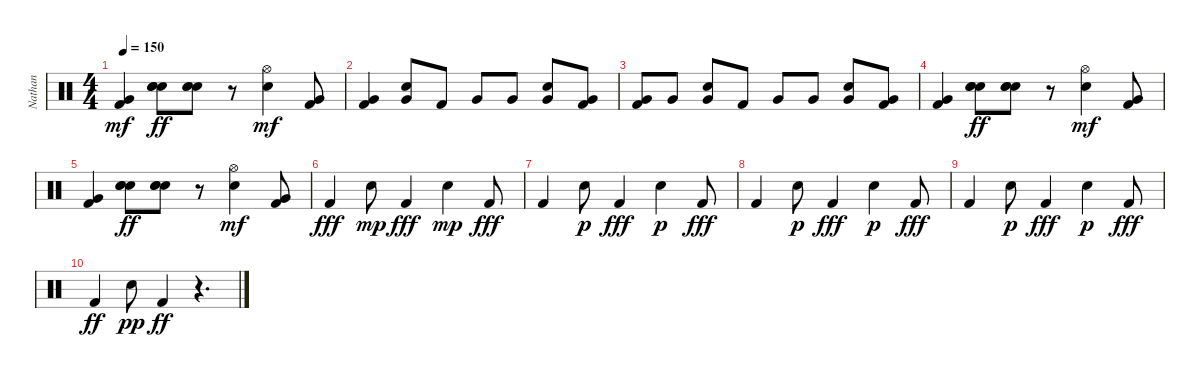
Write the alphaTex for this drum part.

\track ("Nathan" "Nathan") {instrument percussion}
\staff {score}
\articulation defaults
\ts (4 4)
\tempo 150
\clef neutral
\ks c
("Very Low Tom (hit)" "Kick (hit) 2").4{dy mf} ("Electric Snare (hit)" "Hand Clap (hit)" "Hand Clap (hit)").8{dy ff} ("Electric Snare (hit)" "Hand Clap (hit)" "Hand Clap (hit)").8 r.8 ("Electric Snare (hit)" "Hi-Hat (open)").4{dy mf} ("Very Low Tom (hit)" "Kick (hit) 2").8 |
("Very Low Tom (hit)" "Kick (hit) 2").4 ("Very Low Tom (hit)" "Electric Snare (hit)").8 "Kick (hit) 2".8 "Very Low Tom (hit)".8 "Very Low Tom (hit)".8 ("Very Low Tom (hit)" "Electric Snare (hit)").8 ("Very Low Tom (hit)" "Kick (hit) 2").8 |
("Very Low Tom (hit)" "Kick (hit) 2").8 "Very Low Tom (hit)".8 ("Very Low Tom (hit)" "Electric Snare (hit)").8 "Kick (hit) 2".8 "Very Low Tom (hit)".8 "Very Low Tom (hit)".8 ("Very Low Tom (hit)" "Electric Snare (hit)").8 ("Very Low Tom (hit)" "Kick (hit) 2").8 |
("Very Low Tom (hit)" "Kick (hit) 2").4 ("Electric Snare (hit)" "Hand Clap (hit)" "Hand Clap (hit)").8{dy ff} ("Electric Snare (hit)" "Hand Clap (hit)" "Hand Clap (hit)").8 r.8 ("Electric Snare (hit)" "Hi-Hat (open)").4{dy mf} ("Very Low Tom (hit)" "Kick (hit) 2").8 |
("Very Low Tom (hit)" "Kick (hit) 2").4 ("Electric Snare (hit)" "Hand Clap (hit)" "Hand Clap (hit)").8{dy ff} ("Electric Snare (hit)" "Hand Clap (hit)" "Hand Clap (hit)").8 r.8 ("Electric Snare (hit)" "Hi-Hat (open)").4{dy mf} ("Very Low Tom (hit)" "Kick (hit) 2").8 |
"Kick (hit) 2".4{dy fff} "Electric Snare (hit)".8{dy mp} "Kick (hit) 2".4{dy fff} "Electric Snare (hit)".4{dy mp} "Kick (hit) 2".8{dy fff} |
"Kick (hit) 2".4 "Electric Snare (hit)".8{dy p} "Kick (hit) 2".4{dy fff} "Electric Snare (hit)".4{dy p} "Kick (hit) 2".8{dy fff} |
"Kick (hit) 2".4 "Electric Snare (hit)".8{dy p} "Kick (hit) 2".4{dy fff} "Electric Snare (hit)".4{dy p} "Kick (hit) 2".8{dy fff} |
"Kick (hit) 2".4 "Electric Snare (hit)".8{dy p} "Kick (hit) 2".4{dy fff} "Electric Snare (hit)".4{dy p} "Kick (hit) 2".8{dy fff} |
"Kick (hit) 2".4{dy ff} "Electric Snare (hit)".8{dy pp} "Kick (hit) 2".4{dy ff} r.4{d}
